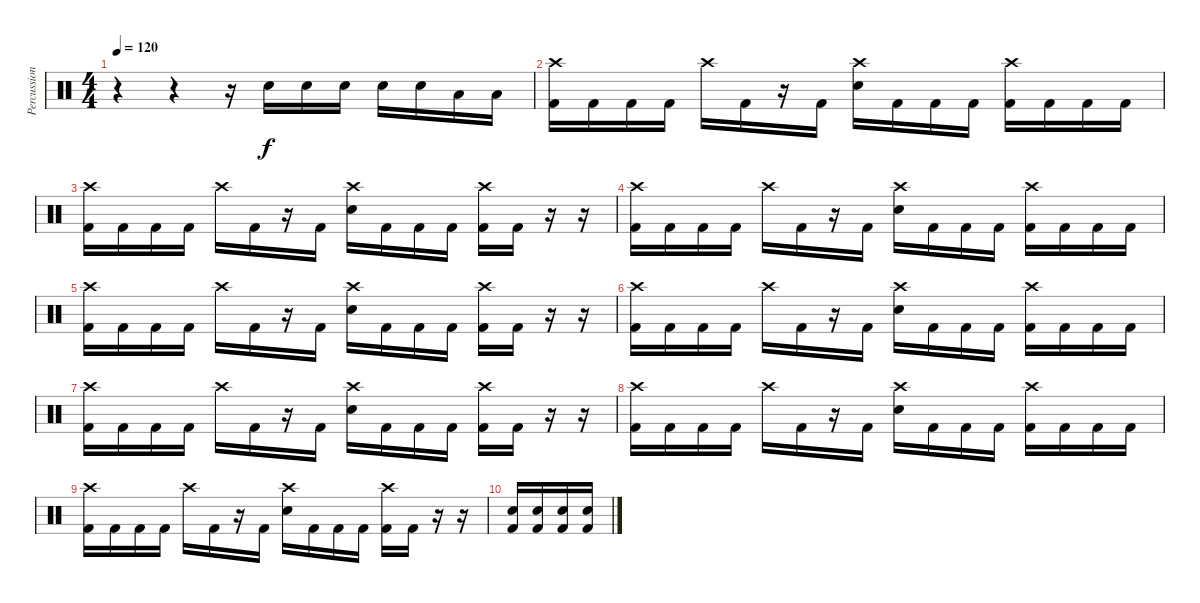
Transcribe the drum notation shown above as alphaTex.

\track ("Percussion" "Percussion") {instrument percussion}
\staff {score}
\articulation defaults
\ts (4 4)
\tempo 120
\clef neutral
\ks c
r.4{dy f} r.4 r.16 "Snare (hit) 2".16 "Snare (hit) 2".16 "Snare (hit) 2".16 "Snare (hit) 2".16 "Snare (hit) 2".16 "Low Tom (hit)".16 "Low Tom (hit)".16 |
("Crash high (hit)" "Kick (hit) 2").16 "Kick (hit) 2".16 "Kick (hit) 2".16 "Kick (hit) 2".16 "Crash high (hit)".16 "Kick (hit) 2".16 r.16 "Kick (hit) 2".16 ("Crash high (hit)" "Snare (hit) 2").16 "Kick (hit) 2".16 "Kick (hit) 2".16 "Kick (hit) 2".16 ("Crash high (hit)" "Kick (hit) 2").16 "Kick (hit) 2".16 "Kick (hit) 2".16 "Kick (hit) 2".16 |
("Crash high (hit)" "Kick (hit) 2").16 "Kick (hit) 2".16 "Kick (hit) 2".16 "Kick (hit) 2".16 "Crash high (hit)".16 "Kick (hit) 2".16 r.16 "Kick (hit) 2".16 ("Crash high (hit)" "Snare (hit) 2").16 "Kick (hit) 2".16 "Kick (hit) 2".16 "Kick (hit) 2".16 ("Crash high (hit)" "Kick (hit) 2").16 "Kick (hit) 2".16 r.16 r.16 |
("Crash high (hit)" "Kick (hit) 2").16 "Kick (hit) 2".16 "Kick (hit) 2".16 "Kick (hit) 2".16 "Crash high (hit)".16 "Kick (hit) 2".16 r.16 "Kick (hit) 2".16 ("Crash high (hit)" "Snare (hit) 2").16 "Kick (hit) 2".16 "Kick (hit) 2".16 "Kick (hit) 2".16 ("Crash high (hit)" "Kick (hit) 2").16 "Kick (hit) 2".16 "Kick (hit) 2".16 "Kick (hit) 2".16 |
("Crash high (hit)" "Kick (hit) 2").16 "Kick (hit) 2".16 "Kick (hit) 2".16 "Kick (hit) 2".16 "Crash high (hit)".16 "Kick (hit) 2".16 r.16 "Kick (hit) 2".16 ("Crash high (hit)" "Snare (hit) 2").16 "Kick (hit) 2".16 "Kick (hit) 2".16 "Kick (hit) 2".16 ("Crash high (hit)" "Kick (hit) 2").16 "Kick (hit) 2".16 r.16 r.16 |
("Crash high (hit)" "Kick (hit) 2").16 "Kick (hit) 2".16 "Kick (hit) 2".16 "Kick (hit) 2".16 "Crash high (hit)".16 "Kick (hit) 2".16 r.16 "Kick (hit) 2".16 ("Crash high (hit)" "Snare (hit) 2").16 "Kick (hit) 2".16 "Kick (hit) 2".16 "Kick (hit) 2".16 ("Crash high (hit)" "Kick (hit) 2").16 "Kick (hit) 2".16 "Kick (hit) 2".16 "Kick (hit) 2".16 |
("Crash high (hit)" "Kick (hit) 2").16 "Kick (hit) 2".16 "Kick (hit) 2".16 "Kick (hit) 2".16 "Crash high (hit)".16 "Kick (hit) 2".16 r.16 "Kick (hit) 2".16 ("Crash high (hit)" "Snare (hit) 2").16 "Kick (hit) 2".16 "Kick (hit) 2".16 "Kick (hit) 2".16 ("Crash high (hit)" "Kick (hit) 2").16 "Kick (hit) 2".16 r.16 r.16 |
("Crash high (hit)" "Kick (hit) 2").16 "Kick (hit) 2".16 "Kick (hit) 2".16 "Kick (hit) 2".16 "Crash high (hit)".16 "Kick (hit) 2".16 r.16 "Kick (hit) 2".16 ("Crash high (hit)" "Snare (hit) 2").16 "Kick (hit) 2".16 "Kick (hit) 2".16 "Kick (hit) 2".16 ("Crash high (hit)" "Kick (hit) 2").16 "Kick (hit) 2".16 "Kick (hit) 2".16 "Kick (hit) 2".16 |
("Crash high (hit)" "Kick (hit) 2").16 "Kick (hit) 2".16 "Kick (hit) 2".16 "Kick (hit) 2".16 "Crash high (hit)".16 "Kick (hit) 2".16 r.16 "Kick (hit) 2".16 ("Crash high (hit)" "Snare (hit) 2").16 "Kick (hit) 2".16 "Kick (hit) 2".16 "Kick (hit) 2".16 ("Crash high (hit)" "Kick (hit) 2").16 "Kick (hit) 2".16 r.16 r.16 |
("Snare (hit) 2" "Kick (hit) 2").16 ("Snare (hit) 2" "Kick (hit) 2").16 ("Snare (hit) 2" "Kick (hit) 2").16 ("Snare (hit) 2" "Kick (hit) 2").16
